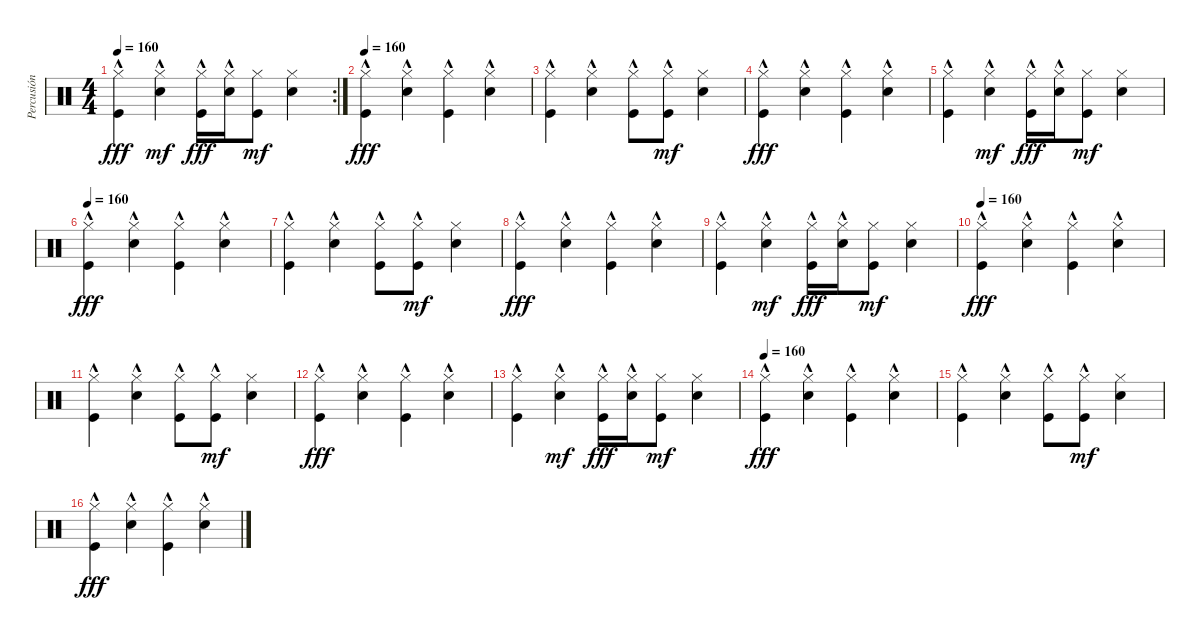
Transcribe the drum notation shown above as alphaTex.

\track ("Percusión" "Percusión") {instrument percussion}
\staff {score}
\articulation defaults
\rc 2
\ts (4 4)
\tempo 160
\clef neutral
\ks c
("Hi-Hat (closed)"{hac} "Kick (hit)"{hac}).4{dy fff} ("Hi-Hat (closed)"{hac} "Snare (hit) 2").4{dy mf} ("Hi-Hat (closed)"{hac} "Kick (hit)"{hac}).16{dy fff} ("Hi-Hat (closed)"{hac} "Snare (hit) 2"{hac}).16 ("Kick (hit)" "Hi-Hat (closed)").8{dy mf} ("Hi-Hat (closed)" "Snare (hit) 2").4 |
\tempo 120
\tempo 160
("Hi-Hat (closed)"{hac} "Kick (hit)"{hac}).4{dy fff} ("Hi-Hat (closed)"{hac} "Snare (hit) 2"{hac}).4 ("Hi-Hat (closed)"{hac} "Kick (hit)"{hac}).4 ("Hi-Hat (closed)"{hac} "Snare (hit) 2"{hac}).4 |
("Hi-Hat (closed)"{hac} "Kick (hit)"{hac}).4 ("Hi-Hat (closed)"{hac} "Snare (hit) 2"{hac}).4 ("Hi-Hat (closed)"{hac} "Kick (hit)"{hac}).8 ("Hi-Hat (closed)"{hac} "Kick (hit)").8{dy mf} ("Hi-Hat (closed)" "Snare (hit) 2").4 |
("Hi-Hat (closed)"{hac} "Kick (hit)"{hac}).4{dy fff} ("Hi-Hat (closed)"{hac} "Snare (hit) 2"{hac}).4 ("Hi-Hat (closed)"{hac} "Kick (hit)"{hac}).4 ("Hi-Hat (closed)"{hac} "Snare (hit) 2"{hac}).4 |
("Hi-Hat (closed)"{hac} "Kick (hit)"{hac}).4 ("Hi-Hat (closed)"{hac} "Snare (hit) 2").4{dy mf} ("Hi-Hat (closed)"{hac} "Kick (hit)"{hac}).16{dy fff} ("Hi-Hat (closed)"{hac} "Snare (hit) 2"{hac}).16 ("Kick (hit)" "Hi-Hat (closed)").8{dy mf} ("Hi-Hat (closed)" "Snare (hit) 2").4 |
\tempo 120
\tempo 160
("Hi-Hat (closed)"{hac} "Kick (hit)"{hac}).4{dy fff} ("Hi-Hat (closed)"{hac} "Snare (hit) 2"{hac}).4 ("Hi-Hat (closed)"{hac} "Kick (hit)"{hac}).4 ("Hi-Hat (closed)"{hac} "Snare (hit) 2"{hac}).4 |
("Hi-Hat (closed)"{hac} "Kick (hit)"{hac}).4 ("Hi-Hat (closed)"{hac} "Snare (hit) 2"{hac}).4 ("Hi-Hat (closed)"{hac} "Kick (hit)"{hac}).8 ("Hi-Hat (closed)"{hac} "Kick (hit)").8{dy mf} ("Hi-Hat (closed)" "Snare (hit) 2").4 |
("Hi-Hat (closed)"{hac} "Kick (hit)"{hac}).4{dy fff} ("Hi-Hat (closed)"{hac} "Snare (hit) 2"{hac}).4 ("Hi-Hat (closed)"{hac} "Kick (hit)"{hac}).4 ("Hi-Hat (closed)"{hac} "Snare (hit) 2"{hac}).4 |
("Hi-Hat (closed)"{hac} "Kick (hit)"{hac}).4 ("Hi-Hat (closed)"{hac} "Snare (hit) 2").4{dy mf} ("Hi-Hat (closed)"{hac} "Kick (hit)"{hac}).16{dy fff} ("Hi-Hat (closed)"{hac} "Snare (hit) 2"{hac}).16 ("Kick (hit)" "Hi-Hat (closed)").8{dy mf} ("Hi-Hat (closed)" "Snare (hit) 2").4 |
\tempo 120
\tempo 160
("Hi-Hat (closed)"{hac} "Kick (hit)"{hac}).4{dy fff} ("Hi-Hat (closed)"{hac} "Snare (hit) 2"{hac}).4 ("Hi-Hat (closed)"{hac} "Kick (hit)"{hac}).4 ("Hi-Hat (closed)"{hac} "Snare (hit) 2"{hac}).4 |
("Hi-Hat (closed)"{hac} "Kick (hit)"{hac}).4 ("Hi-Hat (closed)"{hac} "Snare (hit) 2"{hac}).4 ("Hi-Hat (closed)"{hac} "Kick (hit)"{hac}).8 ("Hi-Hat (closed)"{hac} "Kick (hit)").8{dy mf} ("Hi-Hat (closed)" "Snare (hit) 2").4 |
("Hi-Hat (closed)"{hac} "Kick (hit)"{hac}).4{dy fff} ("Hi-Hat (closed)"{hac} "Snare (hit) 2"{hac}).4 ("Hi-Hat (closed)"{hac} "Kick (hit)"{hac}).4 ("Hi-Hat (closed)"{hac} "Snare (hit) 2"{hac}).4 |
("Hi-Hat (closed)"{hac} "Kick (hit)"{hac}).4 ("Hi-Hat (closed)"{hac} "Snare (hit) 2").4{dy mf} ("Hi-Hat (closed)"{hac} "Kick (hit)"{hac}).16{dy fff} ("Hi-Hat (closed)"{hac} "Snare (hit) 2"{hac}).16 ("Kick (hit)" "Hi-Hat (closed)").8{dy mf} ("Hi-Hat (closed)" "Snare (hit) 2").4 |
\tempo 120
\tempo 160
("Hi-Hat (closed)"{hac} "Kick (hit)"{hac}).4{dy fff} ("Hi-Hat (closed)"{hac} "Snare (hit) 2"{hac}).4 ("Hi-Hat (closed)"{hac} "Kick (hit)"{hac}).4 ("Hi-Hat (closed)"{hac} "Snare (hit) 2"{hac}).4 |
("Hi-Hat (closed)"{hac} "Kick (hit)"{hac}).4 ("Hi-Hat (closed)"{hac} "Snare (hit) 2"{hac}).4 ("Hi-Hat (closed)"{hac} "Kick (hit)"{hac}).8 ("Hi-Hat (closed)"{hac} "Kick (hit)").8{dy mf} ("Hi-Hat (closed)" "Snare (hit) 2").4 |
("Hi-Hat (closed)"{hac} "Kick (hit)"{hac}).4{dy fff} ("Hi-Hat (closed)"{hac} "Snare (hit) 2"{hac}).4 ("Hi-Hat (closed)"{hac} "Kick (hit)"{hac}).4 ("Hi-Hat (closed)"{hac} "Snare (hit) 2"{hac}).4
